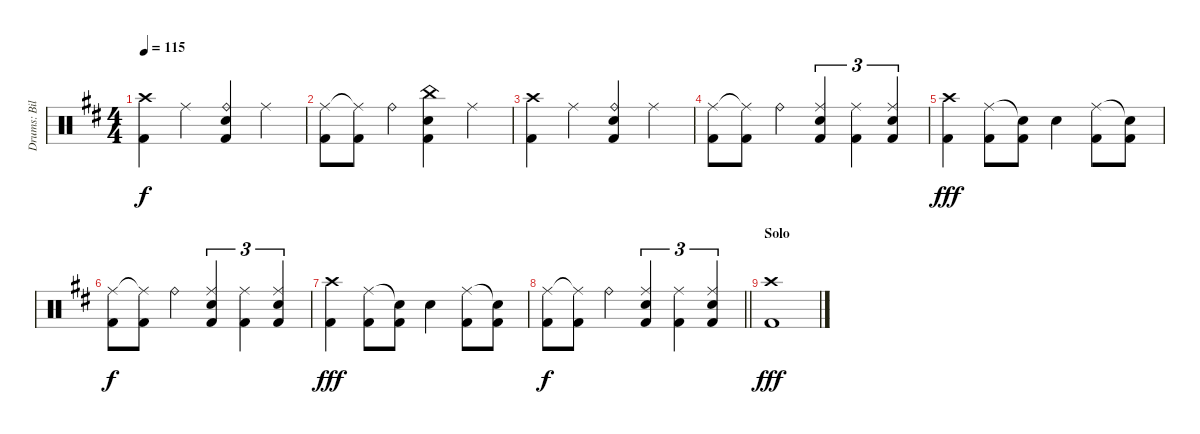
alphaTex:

\track ("Drums: Bill" "Drums: Bil") {instrument percussion}
\staff {score}
\articulation defaults
\ts (4 4)
\tempo 115
\clef neutral
\ks d
("Crash high (hit)" "Kick (hit) 2").4{dy f} "Ride (middle)".4 ("Ride (bell)" "Snare (hit) 2" "Kick (hit) 2").4 "Ride (middle)".4 |
("Ride (middle)" "Kick (hit) 2").8 ("Ride (middle)"{t} "Kick (hit) 2").8 "Ride (bell)".4 ("China (hit)" "Snare (hit) 2" "Kick (hit) 2").4 "Ride (middle)".4 |
("Crash high (hit)" "Kick (hit) 2").4 "Ride (middle)".4 ("Ride (bell)" "Snare (hit) 2" "Kick (hit) 2").4 "Ride (middle)".4 |
("Ride (middle)" "Kick (hit) 2").8 ("Ride (middle)"{t} "Kick (hit) 2").8 "Ride (bell)".4 ("Ride (middle)" "Snare (hit) 2" "Kick (hit) 2").4{tu (3 2)} ("Ride (middle)" "Kick (hit) 2").4{tu (3 2)} ("Ride (middle)" "Snare (hit) 2" "Kick (hit) 2").4{tu (3 2)} |
("Crash high (hit)" "Kick (hit) 2").4{dy fff} ("Ride (middle)" "Kick (hit) 2").8 ("Snare (hit)"{t} "Kick (hit) 2").8 "Snare (hit) 2".4 ("Ride (middle)" "Kick (hit) 2").8 ("Snare (hit)"{t} "Kick (hit) 2").8 |
("Ride (middle)" "Kick (hit) 2").8{dy f} ("Ride (middle)"{t} "Kick (hit) 2").8 "Ride (bell)".4 ("Ride (middle)" "Snare (hit) 2" "Kick (hit) 2").4{tu (3 2)} ("Ride (middle)" "Kick (hit) 2").4{tu (3 2)} ("Ride (middle)" "Snare (hit) 2" "Kick (hit) 2").4{tu (3 2)} |
("Crash high (hit)" "Kick (hit) 2").4{dy fff} ("Ride (middle)" "Kick (hit) 2").8 ("Snare (hit)"{t} "Kick (hit) 2").8 "Snare (hit) 2".4 ("Ride (middle)" "Kick (hit) 2").8 ("Snare (hit)"{t} "Kick (hit) 2").8 |
\barLineRight lightlight
("Ride (middle)" "Kick (hit) 2").8{dy f} ("Ride (middle)"{t} "Kick (hit) 2").8 "Ride (bell)".4 ("Ride (middle)" "Snare (hit) 2" "Kick (hit) 2").4{tu (3 2)} ("Ride (middle)" "Kick (hit) 2").4{tu (3 2)} ("Ride (middle)" "Snare (hit) 2" "Kick (hit) 2").4{tu (3 2)} |
\section ("" "Solo")
("Crash high (hit)" "Kick (hit) 2").1{dy fff}
